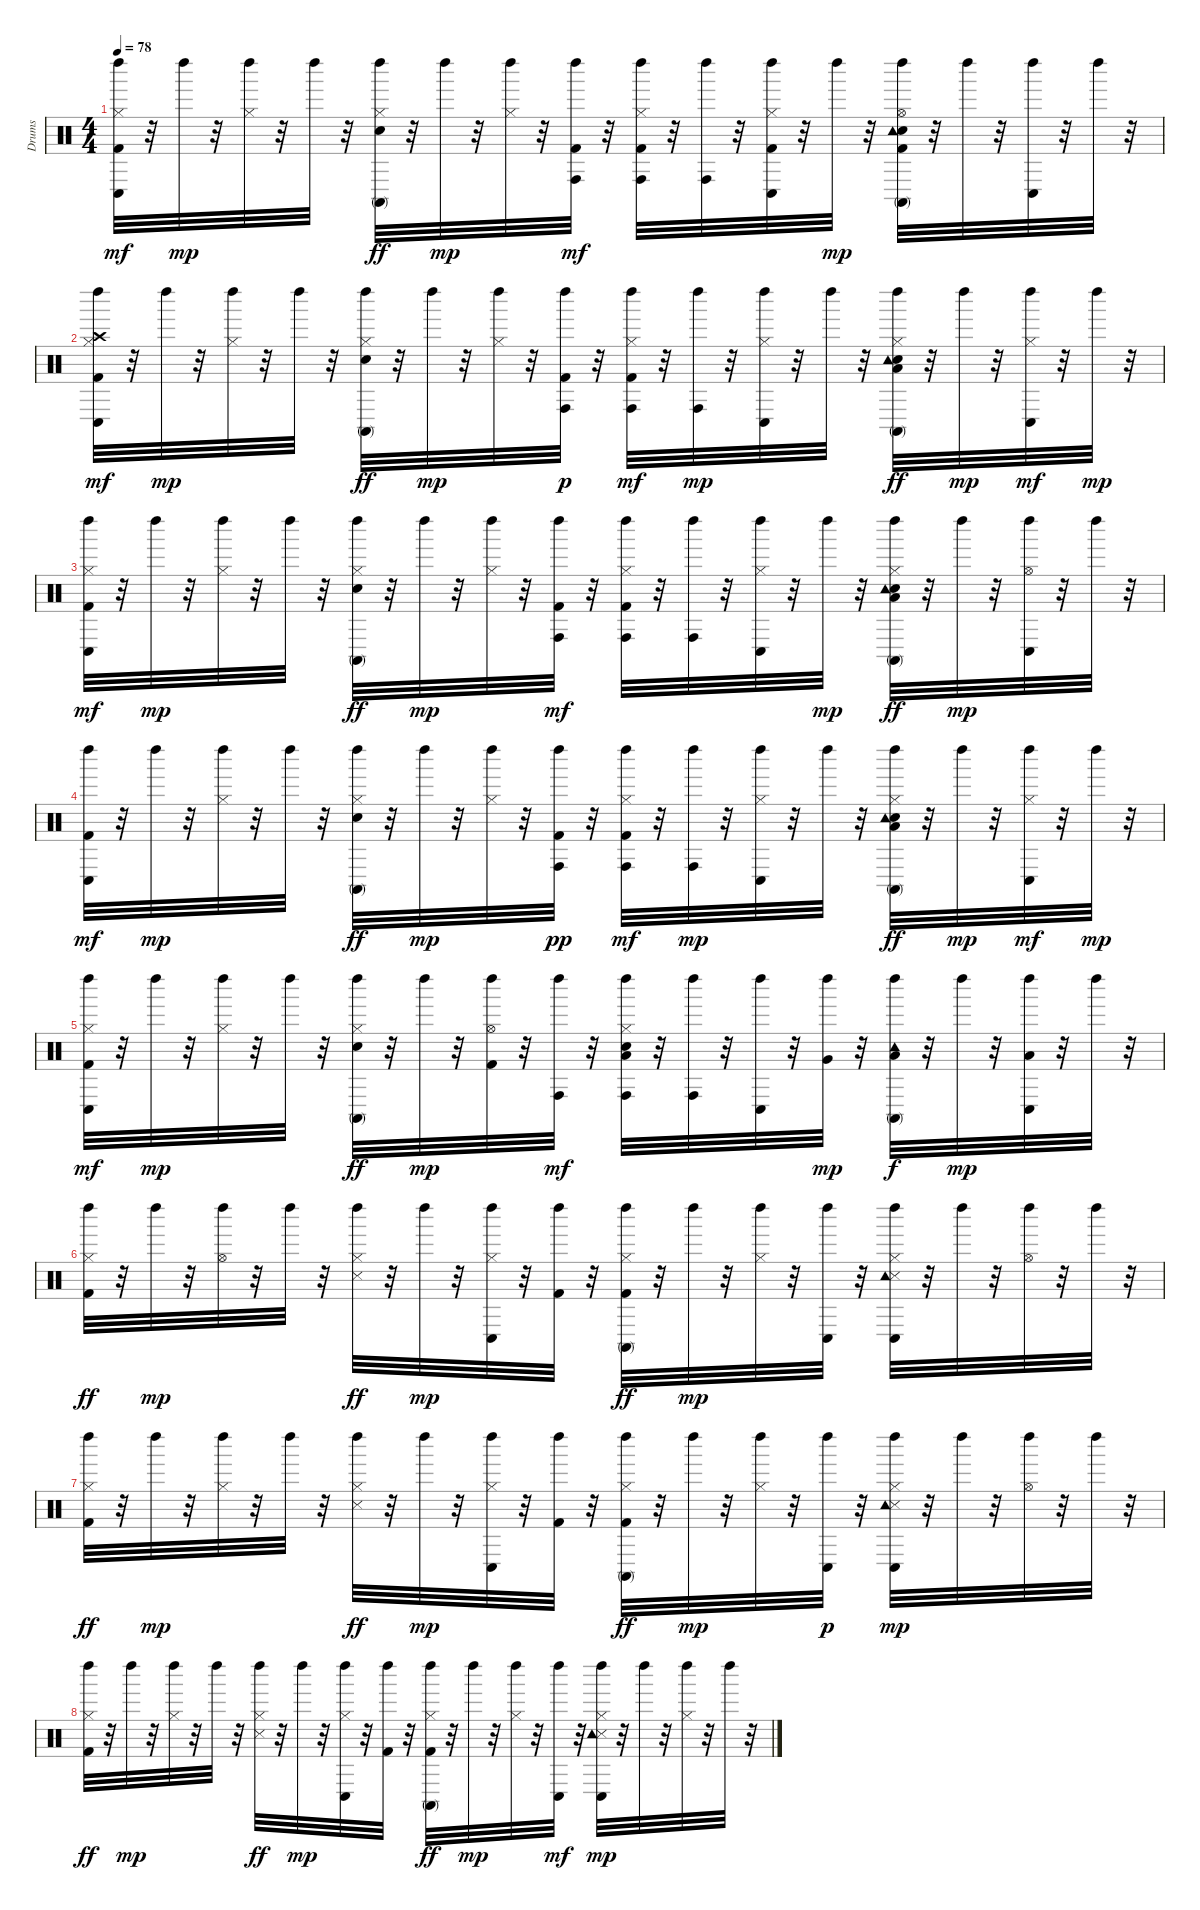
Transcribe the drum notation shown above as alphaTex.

\track ("Drums               " "Drums     ") {instrument percussion}
\staff {score}
\articulation defaults
\ts (4 4)
\tempo 78
\clef neutral
\ks c
("Kick (hit) 2" "Hi-Hat (closed)" "Left Maraca (hit)" "Conga low (hit)").32{dy mf} r.32 "Left Maraca (hit)".32{dy mp} r.32 ("Hi-Hat (closed)" "Left Maraca (hit)").32 r.32 "Left Maraca (hit)".32 r.32 ("Snare (hit) 2" "Hi-Hat (closed)" "Left Maraca (hit)" "Conga high (mute)").32{dy ff} r.32 "Left Maraca (hit)".32{dy mp} r.32 ("Hi-Hat (closed)" "Left Maraca (hit)").32 r.32 ("Kick (hit) 2" "Left Maraca (hit)" "Conga high (hit)").32{dy mf} r.32 ("Kick (hit) 2" "Hi-Hat (closed)" "Left Maraca (hit)" "Conga high (hit)").32 r.32 ("Left Maraca (hit)" "Conga high (hit)").32 r.32 ("Kick (hit) 2" "Hi-Hat (closed)" "Left Maraca (hit)" "Conga low (hit)").32 r.32 "Left Maraca (hit)".32{dy mp} r.32 ("Kick (hit) 2" "Snare (hit) 2" "Left Maraca (hit)" "Conga high (mute)" "Hi-Hat (open)" "Tambourine (hit)").32 r.32 "Left Maraca (hit)".32 r.32 ("Left Maraca (hit)" "Conga low (hit)").32 r.32 "Left Maraca (hit)".32 r.32 |
("Kick (hit) 2" "Hi-Hat (closed)" "Left Maraca (hit)" "Crash high (hit)" "Conga low (hit)").32{dy mf} r.32 "Left Maraca (hit)".32{dy mp} r.32 ("Hi-Hat (closed)" "Left Maraca (hit)").32 r.32 "Left Maraca (hit)".32 r.32 ("Snare (hit) 2" "Hi-Hat (closed)" "Left Maraca (hit)" "Conga high (mute)").32{dy ff} r.32 "Left Maraca (hit)".32{dy mp} r.32 ("Hi-Hat (closed)" "Left Maraca (hit)").32 r.32 ("Kick (hit) 2" "Left Maraca (hit)" "Conga high (hit)").32{dy p} r.32 ("Kick (hit) 2" "Hi-Hat (closed)" "Left Maraca (hit)" "Conga high (hit)").32{dy mf} r.32 ("Left Maraca (hit)" "Conga high (hit)").32{dy mp} r.32 ("Hi-Hat (closed)" "Left Maraca (hit)" "Conga low (hit)").32 r.32 "Left Maraca (hit)".32 r.32 ("Snare (hit) 2" "Hi-Hat (closed)" "Left Maraca (hit)" "Low Floor Tom (hit)" "Conga high (mute)" "Tambourine (hit)").32{dy ff} r.32 "Left Maraca (hit)".32{dy mp} r.32 ("Hi-Hat (closed)" "Left Maraca (hit)" "Conga low (hit)").32{dy mf} r.32 "Left Maraca (hit)".32{dy mp} r.32 |
("Kick (hit) 2" "Hi-Hat (closed)" "Left Maraca (hit)" "Conga low (hit)").32{dy mf} r.32 "Left Maraca (hit)".32{dy mp} r.32 ("Hi-Hat (closed)" "Left Maraca (hit)").32 r.32 "Left Maraca (hit)".32 r.32 ("Snare (hit) 2" "Hi-Hat (closed)" "Left Maraca (hit)" "Conga high (mute)").32{dy ff} r.32 "Left Maraca (hit)".32{dy mp} r.32 ("Hi-Hat (closed)" "Left Maraca (hit)").32 r.32 ("Kick (hit) 2" "Left Maraca (hit)" "Conga high (hit)").32{dy mf} r.32 ("Kick (hit) 2" "Hi-Hat (closed)" "Left Maraca (hit)" "Conga high (hit)").32 r.32 ("Left Maraca (hit)" "Conga high (hit)").32 r.32 ("Hi-Hat (closed)" "Left Maraca (hit)" "Conga low (hit)").32 r.32 "Left Maraca (hit)".32{dy mp} r.32 ("Snare (hit) 2" "Hi-Hat (closed)" "Left Maraca (hit)" "Low Floor Tom (hit)" "Conga high (mute)" "Tambourine (hit)").32{dy ff} r.32 "Left Maraca (hit)".32{dy mp} r.32 ("Hi-Hat (open)" "Left Maraca (hit)" "Conga low (hit)").32 r.32 "Left Maraca (hit)".32 r.32 |
("Kick (hit) 2" "Left Maraca (hit)" "Conga low (hit)").32{dy mf} r.32 "Left Maraca (hit)".32{dy mp} r.32 ("Hi-Hat (closed)" "Left Maraca (hit)").32 r.32 "Left Maraca (hit)".32 r.32 ("Snare (hit) 2" "Hi-Hat (closed)" "Left Maraca (hit)" "Conga high (mute)").32{dy ff} r.32 "Left Maraca (hit)".32{dy mp} r.32 ("Hi-Hat (closed)" "Left Maraca (hit)").32 r.32 ("Kick (hit) 2" "Left Maraca (hit)" "Conga high (hit)").32{dy pp} r.32 ("Kick (hit) 2" "Hi-Hat (closed)" "Left Maraca (hit)" "Conga high (hit)").32{dy mf} r.32 ("Left Maraca (hit)" "Conga high (hit)").32{dy mp} r.32 ("Hi-Hat (closed)" "Left Maraca (hit)" "Conga low (hit)").32 r.32 "Left Maraca (hit)".32 r.32 ("Snare (hit) 2" "Hi-Hat (closed)" "Left Maraca (hit)" "Low Floor Tom (hit)" "Conga high (mute)" "Tambourine (hit)").32{dy ff} r.32 "Left Maraca (hit)".32{dy mp} r.32 ("Hi-Hat (closed)" "Left Maraca (hit)" "Conga low (hit)").32{dy mf} r.32 "Left Maraca (hit)".32{dy mp} r.32 |
("Kick (hit) 2" "Hi-Hat (closed)" "Left Maraca (hit)" "Conga low (hit)").32{dy mf} r.32 "Left Maraca (hit)".32{dy mp} r.32 ("Hi-Hat (closed)" "Left Maraca (hit)").32 r.32 "Left Maraca (hit)".32 r.32 ("Snare (hit) 2" "Hi-Hat (closed)" "Left Maraca (hit)" "Conga high (mute)").32{dy ff} r.32 "Left Maraca (hit)".32{dy mp} r.32 ("Kick (hit) 2" "Hi-Hat (open)" "Left Maraca (hit)").32 r.32 ("Left Maraca (hit)" "Conga high (hit)").32{dy mf} r.32 ("Snare (hit) 2" "Hi-Hat (closed)" "Left Maraca (hit)" "Low Floor Tom (hit)" "Conga high (hit)").32 r.32 ("Left Maraca (hit)" "Conga high (hit)").32 r.32 ("Left Maraca (hit)" "Conga low (hit)").32 r.32 ("Left Maraca (hit)" "Very Low Tom (hit)").32{dy mp} r.32 ("Left Maraca (hit)" "Low Floor Tom (hit)" "Conga high (mute)" "Tambourine (hit)").32{dy f} r.32 "Left Maraca (hit)".32{dy mp} r.32 ("Left Maraca (hit)" "Low Floor Tom (hit)" "Conga low (hit)").32 r.32 "Left Maraca (hit)".32 r.32 |
("Kick (hit) 2" "Hi-Hat (closed)" "Left Maraca (hit)").32{dy ff} r.32 "Left Maraca (hit)".32{dy mp} r.32 ("Hi-Hat (open)" "Left Maraca (hit)").32 r.32 "Left Maraca (hit)".32 r.32 ("Hi-Hat (closed)" "Left Maraca (hit)" "Snare (side stick) 3").32{dy ff} r.32 "Left Maraca (hit)".32{dy mp} r.32 ("Hi-Hat (closed)" "Left Maraca (hit)" "Conga low (hit)").32 r.32 ("Kick (hit) 2" "Left Maraca (hit)").32 r.32 ("Kick (hit) 2" "Hi-Hat (closed)" "Left Maraca (hit)" "Conga high (mute)").32{dy ff} r.32 "Left Maraca (hit)".32{dy mp} r.32 ("Hi-Hat (closed)" "Left Maraca (hit)").32 r.32 ("Left Maraca (hit)" "Conga low (hit)").32 r.32 ("Hi-Hat (closed)" "Left Maraca (hit)" "Snare (side stick) 3" "Tambourine (hit)" "Conga low (hit)").32 r.32 "Left Maraca (hit)".32 r.32 ("Hi-Hat (open)" "Left Maraca (hit)").32 r.32 "Left Maraca (hit)".32 r.32 |
("Kick (hit) 2" "Hi-Hat (closed)" "Left Maraca (hit)").32{dy ff} r.32 "Left Maraca (hit)".32{dy mp} r.32 ("Hi-Hat (closed)" "Left Maraca (hit)").32 r.32 "Left Maraca (hit)".32 r.32 ("Hi-Hat (closed)" "Left Maraca (hit)" "Snare (side stick) 3").32{dy ff} r.32 "Left Maraca (hit)".32{dy mp} r.32 ("Hi-Hat (closed)" "Left Maraca (hit)" "Conga low (hit)").32 r.32 ("Kick (hit) 2" "Left Maraca (hit)").32 r.32 ("Kick (hit) 2" "Hi-Hat (closed)" "Left Maraca (hit)" "Conga high (mute)").32{dy ff} r.32 "Left Maraca (hit)".32{dy mp} r.32 ("Hi-Hat (closed)" "Left Maraca (hit)").32 r.32 ("Left Maraca (hit)" "Conga low (hit)").32{dy p} r.32 ("Hi-Hat (closed)" "Left Maraca (hit)" "Snare (side stick) 3" "Tambourine (hit)" "Conga low (hit)").32{dy mp} r.32 "Left Maraca (hit)".32 r.32 ("Hi-Hat (open)" "Left Maraca (hit)").32 r.32 "Left Maraca (hit)".32 r.32 |
("Kick (hit) 2" "Hi-Hat (closed)" "Left Maraca (hit)").32{dy ff} r.32 "Left Maraca (hit)".32{dy mp} r.32 ("Hi-Hat (closed)" "Left Maraca (hit)").32 r.32 "Left Maraca (hit)".32 r.32 ("Hi-Hat (closed)" "Left Maraca (hit)" "Snare (side stick) 3").32{dy ff} r.32 "Left Maraca (hit)".32{dy mp} r.32 ("Hi-Hat (closed)" "Left Maraca (hit)" "Conga low (hit)").32 r.32 ("Kick (hit) 2" "Left Maraca (hit)").32 r.32 ("Kick (hit) 2" "Hi-Hat (closed)" "Left Maraca (hit)" "Conga high (mute)").32{dy ff} r.32 "Left Maraca (hit)".32{dy mp} r.32 ("Hi-Hat (closed)" "Left Maraca (hit)").32 r.32 ("Left Maraca (hit)" "Conga low (hit)").32{dy mf} r.32 ("Hi-Hat (closed)" "Left Maraca (hit)" "Snare (side stick) 3" "Tambourine (hit)" "Conga low (hit)").32{dy mp} r.32 "Left Maraca (hit)".32 r.32 ("Hi-Hat (closed)" "Left Maraca (hit)").32 r.32 "Left Maraca (hit)".32 r.32
